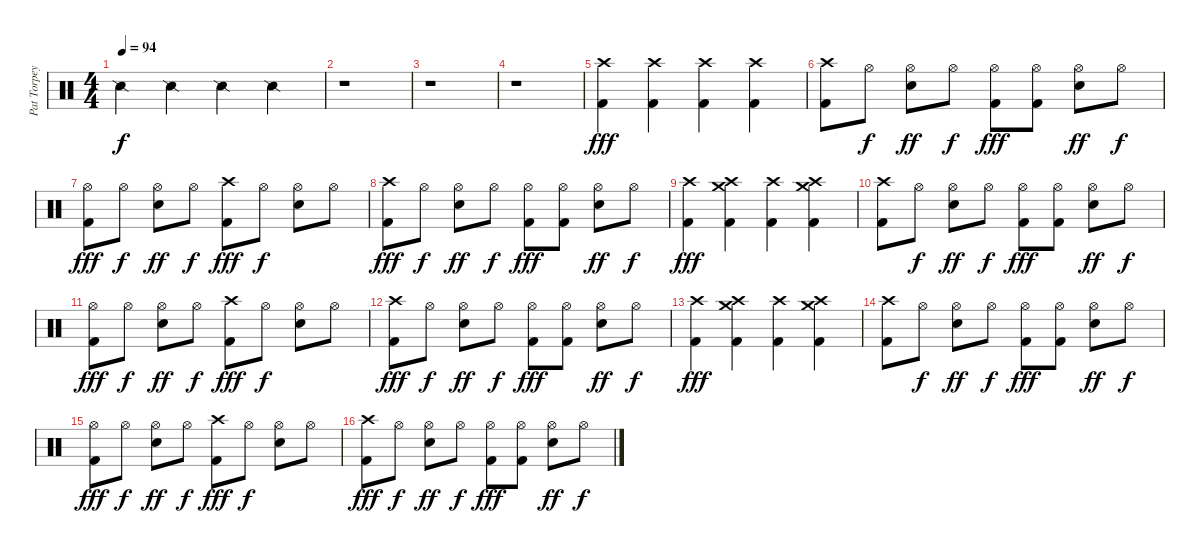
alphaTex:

\track ("Pat Torpey (Toro)" "Pat Torpey") {instrument percussion}
\staff {score}
\articulation defaults
\ts (4 4)
\tempo 94
\clef neutral
\ks c "Snare (side stick) 2".4{dy f} "Snare (side stick) 2".4 "Snare (side stick) 2".4 "Snare (side stick) 2".4
|
r.1 |
r.1 |
r.1 |
("Crash high (hit)" "Kick (hit) 2").4{dy fff} ("Crash high (hit)" "Kick (hit) 2").4 ("Crash high (hit)" "Kick (hit) 2").4 ("Crash high (hit)" "Kick (hit) 2").4 |
("Crash high (hit)" "Kick (hit) 2").8 "Hi-Hat (open)".8{dy f} ("Hi-Hat (open)" "Snare (hit) 2").8{dy ff} "Hi-Hat (open)".8{dy f} ("Hi-Hat (open)" "Kick (hit) 2").8{dy fff} ("Hi-Hat (open)" "Kick (hit) 2").8 ("Hi-Hat (open)" "Snare (hit) 2").8{dy ff} "Hi-Hat (open)".8{dy f} |
("Hi-Hat (open)" "Kick (hit) 2").8{dy fff} "Hi-Hat (open)".8{dy f} ("Hi-Hat (open)" "Snare (hit) 2").8{dy ff} "Hi-Hat (open)".8{dy f} ("Crash high (hit)" "Kick (hit) 2").8{dy fff} "Hi-Hat (open)".8{dy f} ("Hi-Hat (open)" "Snare (hit) 2").8 "Hi-Hat (open)".8 |
("Crash high (hit)" "Kick (hit) 2").8{dy fff} "Hi-Hat (open)".8{dy f} ("Hi-Hat (open)" "Snare (hit) 2").8{dy ff} "Hi-Hat (open)".8{dy f} ("Hi-Hat (open)" "Kick (hit) 2").8{dy fff} ("Hi-Hat (open)" "Kick (hit) 2").8 ("Hi-Hat (open)" "Snare (hit) 2").8{dy ff} "Hi-Hat (open)".8{dy f} |
("Crash high (hit)" "Kick (hit) 2").4{dy fff} ("Crash high (hit)" "Crash medium (hit)" "Kick (hit) 2").4 ("Crash high (hit)" "Kick (hit) 2").4 ("Crash high (hit)" "Crash medium (hit)" "Kick (hit) 2").4 |
("Crash high (hit)" "Kick (hit) 2").8 "Hi-Hat (open)".8{dy f} ("Hi-Hat (open)" "Snare (hit) 2").8{dy ff} "Hi-Hat (open)".8{dy f} ("Hi-Hat (open)" "Kick (hit) 2").8{dy fff} ("Hi-Hat (open)" "Kick (hit) 2").8 ("Hi-Hat (open)" "Snare (hit) 2").8{dy ff} "Hi-Hat (open)".8{dy f} |
("Hi-Hat (open)" "Kick (hit) 2").8{dy fff} "Hi-Hat (open)".8{dy f} ("Hi-Hat (open)" "Snare (hit) 2").8{dy ff} "Hi-Hat (open)".8{dy f} ("Crash high (hit)" "Kick (hit) 2").8{dy fff} "Hi-Hat (open)".8{dy f} ("Hi-Hat (open)" "Snare (hit) 2").8 "Hi-Hat (open)".8 |
("Crash high (hit)" "Kick (hit) 2").8{dy fff} "Hi-Hat (open)".8{dy f} ("Hi-Hat (open)" "Snare (hit) 2").8{dy ff} "Hi-Hat (open)".8{dy f} ("Hi-Hat (open)" "Kick (hit) 2").8{dy fff} ("Hi-Hat (open)" "Kick (hit) 2").8 ("Hi-Hat (open)" "Snare (hit) 2").8{dy ff} "Hi-Hat (open)".8{dy f} |
("Crash high (hit)" "Kick (hit) 2").4{dy fff} ("Crash high (hit)" "Crash medium (hit)" "Kick (hit) 2").4 ("Crash high (hit)" "Kick (hit) 2").4 ("Crash high (hit)" "Crash medium (hit)" "Kick (hit) 2").4 |
("Crash high (hit)" "Kick (hit) 2").8 "Hi-Hat (open)".8{dy f} ("Hi-Hat (open)" "Snare (hit) 2").8{dy ff} "Hi-Hat (open)".8{dy f} ("Hi-Hat (open)" "Kick (hit) 2").8{dy fff} ("Hi-Hat (open)" "Kick (hit) 2").8 ("Hi-Hat (open)" "Snare (hit) 2").8{dy ff} "Hi-Hat (open)".8{dy f} |
("Hi-Hat (open)" "Kick (hit) 2").8{dy fff} "Hi-Hat (open)".8{dy f} ("Hi-Hat (open)" "Snare (hit) 2").8{dy ff} "Hi-Hat (open)".8{dy f} ("Crash high (hit)" "Kick (hit) 2").8{dy fff} "Hi-Hat (open)".8{dy f} ("Hi-Hat (open)" "Snare (hit) 2").8 "Hi-Hat (open)".8 |
("Crash high (hit)" "Kick (hit) 2").8{dy fff} "Hi-Hat (open)".8{dy f} ("Hi-Hat (open)" "Snare (hit) 2").8{dy ff} "Hi-Hat (open)".8{dy f} ("Hi-Hat (open)" "Kick (hit) 2").8{dy fff} ("Hi-Hat (open)" "Kick (hit) 2").8 ("Hi-Hat (open)" "Snare (hit) 2").8{dy ff} "Hi-Hat (open)".8{dy f}
